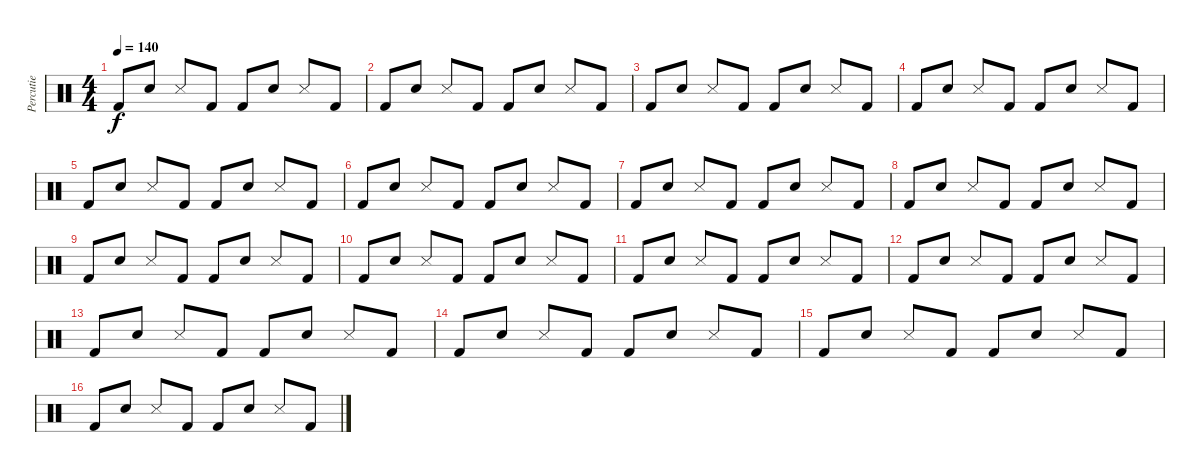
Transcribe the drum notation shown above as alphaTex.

\track ("Percutie" "Percutie") {instrument percussion}
\staff {score}
\articulation defaults
\ts (4 4)
\tempo 140
\clef neutral
\ks c "Kick (hit) 2".8{dy f} "Electric Snare (hit)".8 "Snare (side stick) 3".8 "Kick (hit) 2".8 "Kick (hit) 2".8 "Electric Snare (hit)".8 "Snare (side stick) 3".8 "Kick (hit) 2".8
|
"Kick (hit) 2".8 "Electric Snare (hit)".8 "Snare (side stick) 3".8 "Kick (hit) 2".8 "Kick (hit) 2".8 "Electric Snare (hit)".8 "Snare (side stick) 3".8 "Kick (hit) 2".8 |
"Kick (hit) 2".8 "Electric Snare (hit)".8 "Snare (side stick) 3".8 "Kick (hit) 2".8 "Kick (hit) 2".8 "Electric Snare (hit)".8 "Snare (side stick) 3".8 "Kick (hit) 2".8 |
"Kick (hit) 2".8 "Electric Snare (hit)".8 "Snare (side stick) 3".8 "Kick (hit) 2".8 "Kick (hit) 2".8 "Electric Snare (hit)".8 "Snare (side stick) 3".8 "Kick (hit) 2".8 |
"Kick (hit) 2".8 "Electric Snare (hit)".8 "Snare (side stick) 3".8 "Kick (hit) 2".8 "Kick (hit) 2".8 "Electric Snare (hit)".8 "Snare (side stick) 3".8 "Kick (hit) 2".8 |
"Kick (hit) 2".8 "Electric Snare (hit)".8 "Snare (side stick) 3".8 "Kick (hit) 2".8 "Kick (hit) 2".8 "Electric Snare (hit)".8 "Snare (side stick) 3".8 "Kick (hit) 2".8 |
"Kick (hit) 2".8 "Electric Snare (hit)".8 "Snare (side stick) 3".8 "Kick (hit) 2".8 "Kick (hit) 2".8 "Electric Snare (hit)".8 "Snare (side stick) 3".8 "Kick (hit) 2".8 |
"Kick (hit) 2".8 "Electric Snare (hit)".8 "Snare (side stick) 3".8 "Kick (hit) 2".8 "Kick (hit) 2".8 "Electric Snare (hit)".8 "Snare (side stick) 3".8 "Kick (hit) 2".8 |
"Kick (hit) 2".8 "Electric Snare (hit)".8 "Snare (side stick) 3".8 "Kick (hit) 2".8 "Kick (hit) 2".8 "Electric Snare (hit)".8 "Snare (side stick) 3".8 "Kick (hit) 2".8 |
"Kick (hit) 2".8 "Electric Snare (hit)".8 "Snare (side stick) 3".8 "Kick (hit) 2".8 "Kick (hit) 2".8 "Electric Snare (hit)".8 "Snare (side stick) 3".8 "Kick (hit) 2".8 |
"Kick (hit) 2".8 "Electric Snare (hit)".8 "Snare (side stick) 3".8 "Kick (hit) 2".8 "Kick (hit) 2".8 "Electric Snare (hit)".8 "Snare (side stick) 3".8 "Kick (hit) 2".8 |
"Kick (hit) 2".8 "Electric Snare (hit)".8 "Snare (side stick) 3".8 "Kick (hit) 2".8 "Kick (hit) 2".8 "Electric Snare (hit)".8 "Snare (side stick) 3".8 "Kick (hit) 2".8 |
"Kick (hit) 2".8 "Electric Snare (hit)".8 "Snare (side stick) 3".8 "Kick (hit) 2".8 "Kick (hit) 2".8 "Electric Snare (hit)".8 "Snare (side stick) 3".8 "Kick (hit) 2".8 |
"Kick (hit) 2".8 "Electric Snare (hit)".8 "Snare (side stick) 3".8 "Kick (hit) 2".8 "Kick (hit) 2".8 "Electric Snare (hit)".8 "Snare (side stick) 3".8 "Kick (hit) 2".8 |
"Kick (hit) 2".8 "Electric Snare (hit)".8 "Snare (side stick) 3".8 "Kick (hit) 2".8 "Kick (hit) 2".8 "Electric Snare (hit)".8 "Snare (side stick) 3".8 "Kick (hit) 2".8 |
"Kick (hit) 2".8 "Electric Snare (hit)".8 "Snare (side stick) 3".8 "Kick (hit) 2".8 "Kick (hit) 2".8 "Electric Snare (hit)".8 "Snare (side stick) 3".8 "Kick (hit) 2".8
